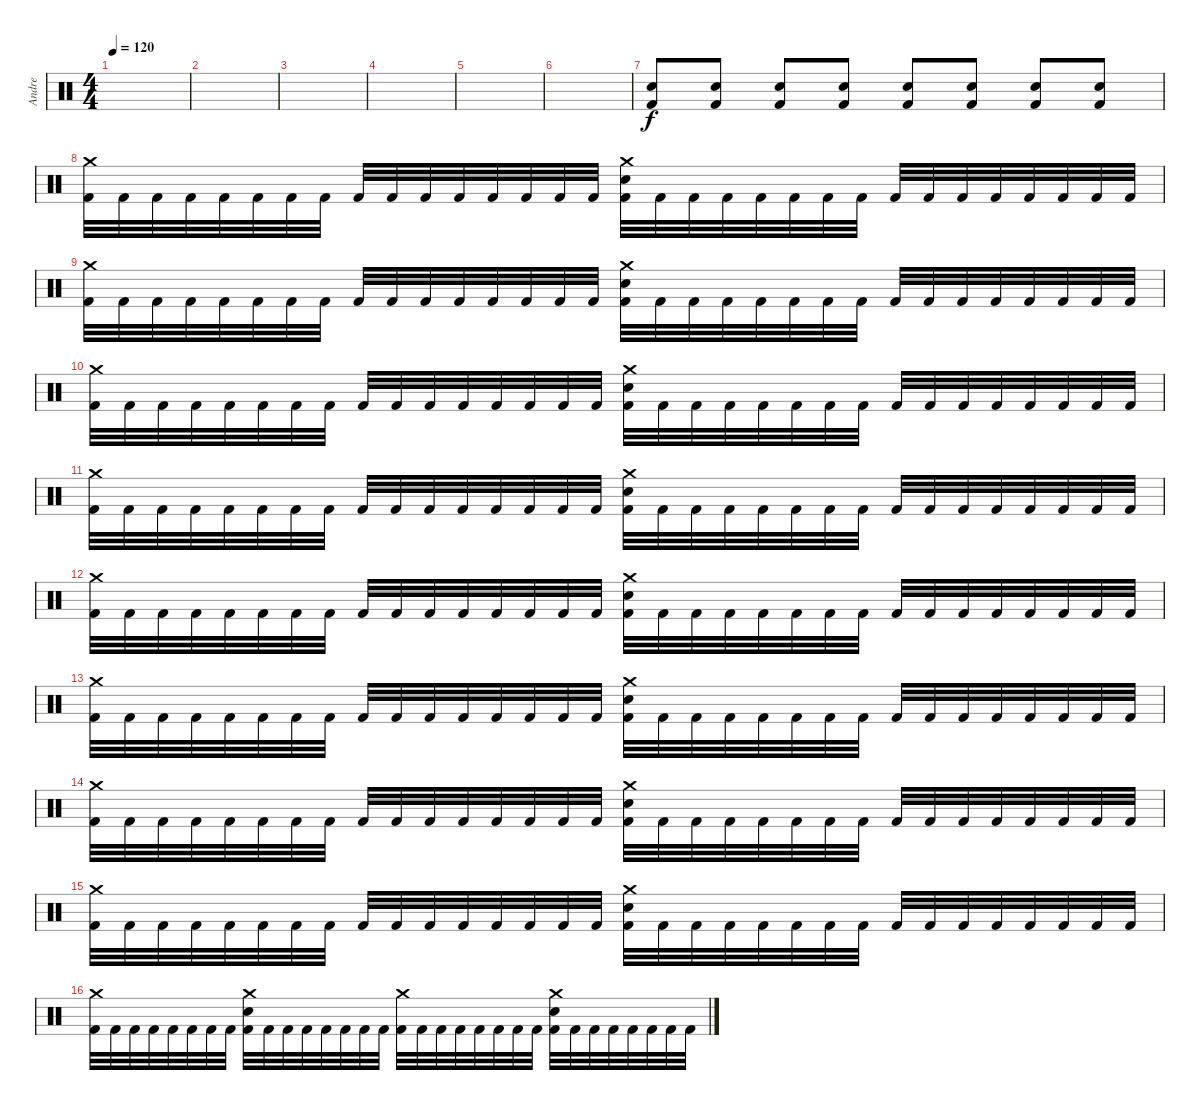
\track ("Andre" "Andre") {instrument percussion}
\staff {score}
\articulation defaults
\ts (4 4)
\tempo 120
\clef neutral
\ks c
|
|
|
|
|
|
("Snare (hit) 2" "Kick (hit) 2").8 ("Snare (hit) 2" "Kick (hit) 2").8 ("Snare (hit) 2" "Kick (hit) 2").8 ("Snare (hit) 2" "Kick (hit) 2").8 ("Snare (hit) 2" "Kick (hit) 2").8 ("Snare (hit) 2" "Kick (hit) 2").8 ("Snare (hit) 2" "Kick (hit) 2").8 ("Snare (hit) 2" "Kick (hit) 2").8 |
("Crash medium (hit)" "Kick (hit) 2").32 "Kick (hit) 2".32 "Kick (hit) 2".32 "Kick (hit) 2".32 "Kick (hit) 2".32 "Kick (hit) 2".32 "Kick (hit) 2".32 "Kick (hit) 2".32 "Kick (hit) 2".32 "Kick (hit) 2".32 "Kick (hit) 2".32 "Kick (hit) 2".32 "Kick (hit) 2".32 "Kick (hit) 2".32 "Kick (hit) 2".32 "Kick (hit) 2".32 ("Crash medium (hit)" "Snare (hit) 2" "Kick (hit) 2").32 "Kick (hit) 2".32 "Kick (hit) 2".32 "Kick (hit) 2".32 "Kick (hit) 2".32 "Kick (hit) 2".32 "Kick (hit) 2".32 "Kick (hit) 2".32 "Kick (hit) 2".32 "Kick (hit) 2".32 "Kick (hit) 2".32 "Kick (hit) 2".32 "Kick (hit) 2".32 "Kick (hit) 2".32 "Kick (hit) 2".32 "Kick (hit) 2".32 |
("Crash medium (hit)" "Kick (hit) 2").32 "Kick (hit) 2".32 "Kick (hit) 2".32 "Kick (hit) 2".32 "Kick (hit) 2".32 "Kick (hit) 2".32 "Kick (hit) 2".32 "Kick (hit) 2".32 "Kick (hit) 2".32 "Kick (hit) 2".32 "Kick (hit) 2".32 "Kick (hit) 2".32 "Kick (hit) 2".32 "Kick (hit) 2".32 "Kick (hit) 2".32 "Kick (hit) 2".32 ("Crash medium (hit)" "Snare (hit) 2" "Kick (hit) 2").32 "Kick (hit) 2".32 "Kick (hit) 2".32 "Kick (hit) 2".32 "Kick (hit) 2".32 "Kick (hit) 2".32 "Kick (hit) 2".32 "Kick (hit) 2".32 "Kick (hit) 2".32 "Kick (hit) 2".32 "Kick (hit) 2".32 "Kick (hit) 2".32 "Kick (hit) 2".32 "Kick (hit) 2".32 "Kick (hit) 2".32 "Kick (hit) 2".32 |
("Crash medium (hit)" "Kick (hit) 2").32 "Kick (hit) 2".32 "Kick (hit) 2".32 "Kick (hit) 2".32 "Kick (hit) 2".32 "Kick (hit) 2".32 "Kick (hit) 2".32 "Kick (hit) 2".32 "Kick (hit) 2".32 "Kick (hit) 2".32 "Kick (hit) 2".32 "Kick (hit) 2".32 "Kick (hit) 2".32 "Kick (hit) 2".32 "Kick (hit) 2".32 "Kick (hit) 2".32 ("Crash medium (hit)" "Snare (hit) 2" "Kick (hit) 2").32 "Kick (hit) 2".32 "Kick (hit) 2".32 "Kick (hit) 2".32 "Kick (hit) 2".32 "Kick (hit) 2".32 "Kick (hit) 2".32 "Kick (hit) 2".32 "Kick (hit) 2".32 "Kick (hit) 2".32 "Kick (hit) 2".32 "Kick (hit) 2".32 "Kick (hit) 2".32 "Kick (hit) 2".32 "Kick (hit) 2".32 "Kick (hit) 2".32 |
("Crash medium (hit)" "Kick (hit) 2").32 "Kick (hit) 2".32 "Kick (hit) 2".32 "Kick (hit) 2".32 "Kick (hit) 2".32 "Kick (hit) 2".32 "Kick (hit) 2".32 "Kick (hit) 2".32 "Kick (hit) 2".32 "Kick (hit) 2".32 "Kick (hit) 2".32 "Kick (hit) 2".32 "Kick (hit) 2".32 "Kick (hit) 2".32 "Kick (hit) 2".32 "Kick (hit) 2".32 ("Crash medium (hit)" "Snare (hit) 2" "Kick (hit) 2").32 "Kick (hit) 2".32 "Kick (hit) 2".32 "Kick (hit) 2".32 "Kick (hit) 2".32 "Kick (hit) 2".32 "Kick (hit) 2".32 "Kick (hit) 2".32 "Kick (hit) 2".32 "Kick (hit) 2".32 "Kick (hit) 2".32 "Kick (hit) 2".32 "Kick (hit) 2".32 "Kick (hit) 2".32 "Kick (hit) 2".32 "Kick (hit) 2".32 |
("Crash medium (hit)" "Kick (hit) 2").32 "Kick (hit) 2".32 "Kick (hit) 2".32 "Kick (hit) 2".32 "Kick (hit) 2".32 "Kick (hit) 2".32 "Kick (hit) 2".32 "Kick (hit) 2".32 "Kick (hit) 2".32 "Kick (hit) 2".32 "Kick (hit) 2".32 "Kick (hit) 2".32 "Kick (hit) 2".32 "Kick (hit) 2".32 "Kick (hit) 2".32 "Kick (hit) 2".32 ("Crash medium (hit)" "Snare (hit) 2" "Kick (hit) 2").32 "Kick (hit) 2".32 "Kick (hit) 2".32 "Kick (hit) 2".32 "Kick (hit) 2".32 "Kick (hit) 2".32 "Kick (hit) 2".32 "Kick (hit) 2".32 "Kick (hit) 2".32 "Kick (hit) 2".32 "Kick (hit) 2".32 "Kick (hit) 2".32 "Kick (hit) 2".32 "Kick (hit) 2".32 "Kick (hit) 2".32 "Kick (hit) 2".32 |
("Crash medium (hit)" "Kick (hit) 2").32 "Kick (hit) 2".32 "Kick (hit) 2".32 "Kick (hit) 2".32 "Kick (hit) 2".32 "Kick (hit) 2".32 "Kick (hit) 2".32 "Kick (hit) 2".32 "Kick (hit) 2".32 "Kick (hit) 2".32 "Kick (hit) 2".32 "Kick (hit) 2".32 "Kick (hit) 2".32 "Kick (hit) 2".32 "Kick (hit) 2".32 "Kick (hit) 2".32 ("Crash medium (hit)" "Snare (hit) 2" "Kick (hit) 2").32 "Kick (hit) 2".32 "Kick (hit) 2".32 "Kick (hit) 2".32 "Kick (hit) 2".32 "Kick (hit) 2".32 "Kick (hit) 2".32 "Kick (hit) 2".32 "Kick (hit) 2".32 "Kick (hit) 2".32 "Kick (hit) 2".32 "Kick (hit) 2".32 "Kick (hit) 2".32 "Kick (hit) 2".32 "Kick (hit) 2".32 "Kick (hit) 2".32 |
("Crash medium (hit)" "Kick (hit) 2").32 "Kick (hit) 2".32 "Kick (hit) 2".32 "Kick (hit) 2".32 "Kick (hit) 2".32 "Kick (hit) 2".32 "Kick (hit) 2".32 "Kick (hit) 2".32 "Kick (hit) 2".32 "Kick (hit) 2".32 "Kick (hit) 2".32 "Kick (hit) 2".32 "Kick (hit) 2".32 "Kick (hit) 2".32 "Kick (hit) 2".32 "Kick (hit) 2".32 ("Crash medium (hit)" "Snare (hit) 2" "Kick (hit) 2").32 "Kick (hit) 2".32 "Kick (hit) 2".32 "Kick (hit) 2".32 "Kick (hit) 2".32 "Kick (hit) 2".32 "Kick (hit) 2".32 "Kick (hit) 2".32 "Kick (hit) 2".32 "Kick (hit) 2".32 "Kick (hit) 2".32 "Kick (hit) 2".32 "Kick (hit) 2".32 "Kick (hit) 2".32 "Kick (hit) 2".32 "Kick (hit) 2".32 |
("Crash medium (hit)" "Kick (hit) 2").32 "Kick (hit) 2".32 "Kick (hit) 2".32 "Kick (hit) 2".32 "Kick (hit) 2".32 "Kick (hit) 2".32 "Kick (hit) 2".32 "Kick (hit) 2".32 "Kick (hit) 2".32 "Kick (hit) 2".32 "Kick (hit) 2".32 "Kick (hit) 2".32 "Kick (hit) 2".32 "Kick (hit) 2".32 "Kick (hit) 2".32 "Kick (hit) 2".32 ("Crash medium (hit)" "Snare (hit) 2" "Kick (hit) 2").32 "Kick (hit) 2".32 "Kick (hit) 2".32 "Kick (hit) 2".32 "Kick (hit) 2".32 "Kick (hit) 2".32 "Kick (hit) 2".32 "Kick (hit) 2".32 "Kick (hit) 2".32 "Kick (hit) 2".32 "Kick (hit) 2".32 "Kick (hit) 2".32 "Kick (hit) 2".32 "Kick (hit) 2".32 "Kick (hit) 2".32 "Kick (hit) 2".32 |
("Crash medium (hit)" "Kick (hit) 2").32 "Kick (hit) 2".32 "Kick (hit) 2".32 "Kick (hit) 2".32 "Kick (hit) 2".32 "Kick (hit) 2".32 "Kick (hit) 2".32 "Kick (hit) 2".32 ("Crash medium (hit)" "Snare (hit) 2" "Kick (hit) 2").32 "Kick (hit) 2".32 "Kick (hit) 2".32 "Kick (hit) 2".32 "Kick (hit) 2".32 "Kick (hit) 2".32 "Kick (hit) 2".32 "Kick (hit) 2".32 ("Crash medium (hit)" "Kick (hit) 2").32 "Kick (hit) 2".32 "Kick (hit) 2".32 "Kick (hit) 2".32 "Kick (hit) 2".32 "Kick (hit) 2".32 "Kick (hit) 2".32 "Kick (hit) 2".32 ("Crash medium (hit)" "Snare (hit) 2" "Kick (hit) 2").32 "Kick (hit) 2".32 "Kick (hit) 2".32 "Kick (hit) 2".32 "Kick (hit) 2".32 "Kick (hit) 2".32 "Kick (hit) 2".32 "Kick (hit) 2".32
